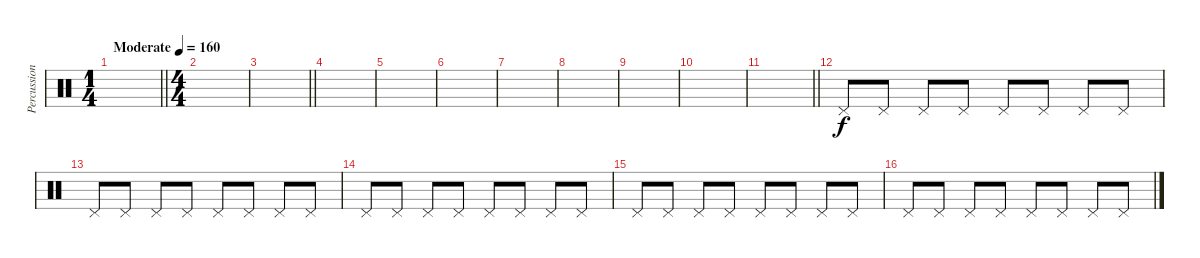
\track ("Percussion" "Percussion") {instrument percussion}
\staff {score}
\articulation defaults
\ts (1 4)
\tempo (160 "Moderate")
\clef neutral
\barLineRight lightlight
\ks c
|
\ts (4 4)
|
\barLineRight lightlight
|
|
|
|
|
|
|
|
\barLineRight lightlight
|
"Pedal Hi-Hat (hit)".8 "Pedal Hi-Hat (hit)".8 "Pedal Hi-Hat (hit)".8 "Pedal Hi-Hat (hit)".8 "Pedal Hi-Hat (hit)".8 "Pedal Hi-Hat (hit)".8 "Pedal Hi-Hat (hit)".8 "Pedal Hi-Hat (hit)".8 |
"Pedal Hi-Hat (hit)".8 "Pedal Hi-Hat (hit)".8 "Pedal Hi-Hat (hit)".8 "Pedal Hi-Hat (hit)".8 "Pedal Hi-Hat (hit)".8 "Pedal Hi-Hat (hit)".8 "Pedal Hi-Hat (hit)".8 "Pedal Hi-Hat (hit)".8 |
"Pedal Hi-Hat (hit)".8 "Pedal Hi-Hat (hit)".8 "Pedal Hi-Hat (hit)".8 "Pedal Hi-Hat (hit)".8 "Pedal Hi-Hat (hit)".8 "Pedal Hi-Hat (hit)".8 "Pedal Hi-Hat (hit)".8 "Pedal Hi-Hat (hit)".8 |
"Pedal Hi-Hat (hit)".8 "Pedal Hi-Hat (hit)".8 "Pedal Hi-Hat (hit)".8 "Pedal Hi-Hat (hit)".8 "Pedal Hi-Hat (hit)".8 "Pedal Hi-Hat (hit)".8 "Pedal Hi-Hat (hit)".8 "Pedal Hi-Hat (hit)".8 |
"Pedal Hi-Hat (hit)".8 "Pedal Hi-Hat (hit)".8 "Pedal Hi-Hat (hit)".8 "Pedal Hi-Hat (hit)".8 "Pedal Hi-Hat (hit)".8 "Pedal Hi-Hat (hit)".8 "Pedal Hi-Hat (hit)".8 "Pedal Hi-Hat (hit)".8
